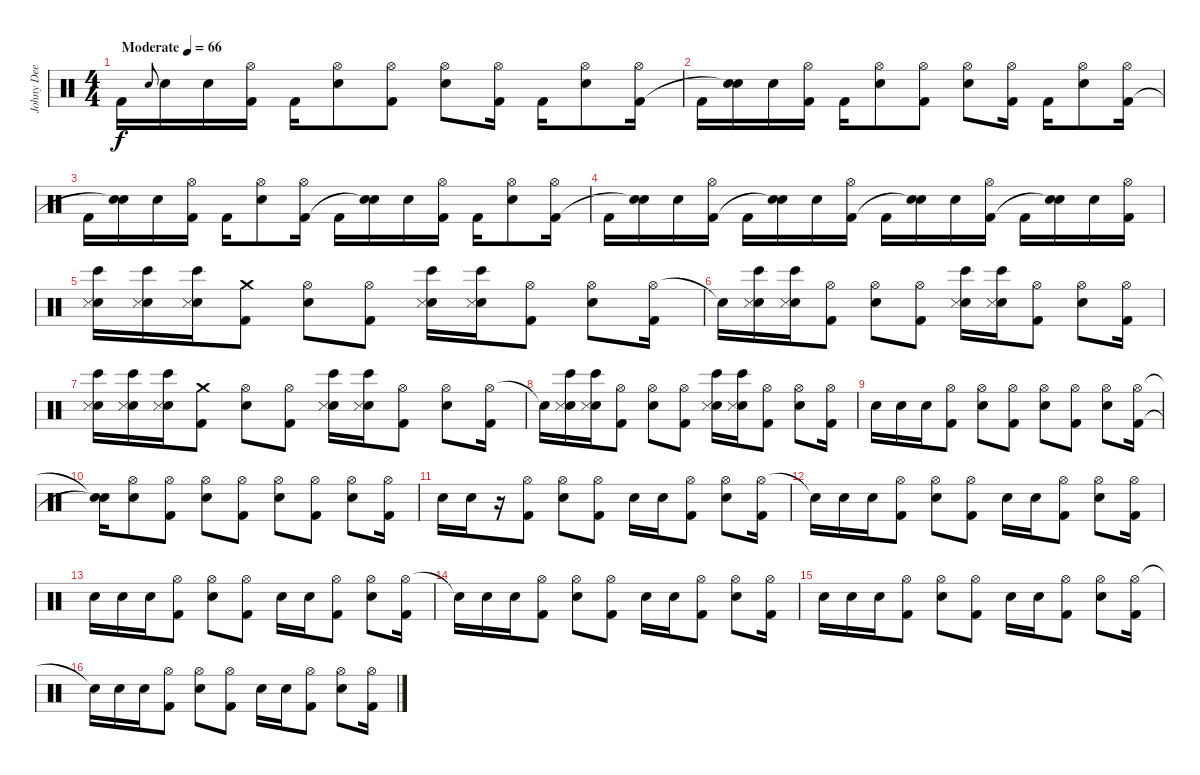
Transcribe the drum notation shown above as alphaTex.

\track ("Johny Dee" "Johny Dee") {instrument percussion}
\staff {score}
\articulation defaults
\ts (4 4)
\tempo (66 "Moderate")
\clef neutral
\ks c "Kick (hit) 2".16{dy f} "Snare (hit) 2".8{gr onbeat} "Snare (hit) 2".16 "Snare (hit) 2".16
("Hi-Hat (open)" "Kick (hit) 2").16 "Kick (hit) 2".16 ("Hi-Hat (open)" "Snare (hit) 2").8 ("Hi-Hat (open)" "Kick (hit) 2").8 ("Hi-Hat (open)" "Snare (hit) 2").8 ("Hi-Hat (open)" "Kick (hit) 2").16 "Kick (hit) 2".16 ("Hi-Hat (open)" "Snare (hit) 2").8 ("Hi-Hat (open)" "Kick (hit) 2").16 |
"Kick (hit) 2".16 ("Snare (hit) 2" "Snare (hit)"{t}).16 "Snare (hit) 2".16 ("Hi-Hat (open)" "Kick (hit) 2").16 "Kick (hit) 2".16 ("Hi-Hat (open)" "Snare (hit) 2").8 ("Hi-Hat (open)" "Kick (hit) 2").8 ("Hi-Hat (open)" "Snare (hit) 2").8 ("Hi-Hat (open)" "Kick (hit) 2").16 "Kick (hit) 2".16 ("Hi-Hat (open)" "Snare (hit) 2").8 ("Hi-Hat (open)" "Kick (hit) 2").16 |
"Kick (hit) 2".16 ("Snare (hit) 2" "Snare (hit)"{t}).16 "Snare (hit) 2".16 ("Hi-Hat (open)" "Kick (hit) 2").16 "Kick (hit) 2".16 ("Hi-Hat (open)" "Snare (hit) 2").8 ("Hi-Hat (open)" "Kick (hit) 2").16 "Kick (hit) 2".16 ("Snare (hit) 2" "Snare (hit)"{t}).16 "Snare (hit) 2".16 ("Hi-Hat (open)" "Kick (hit) 2").16 "Kick (hit) 2".16 ("Hi-Hat (open)" "Snare (hit) 2").8 ("Hi-Hat (open)" "Kick (hit) 2").16 |
"Kick (hit) 2".16 ("Snare (hit) 2" "Snare (hit)"{t}).16 "Snare (hit) 2".16 ("Hi-Hat (open)" "Kick (hit) 2").16 "Kick (hit) 2".16 ("Snare (hit) 2" "Snare (hit)"{t}).16 "Snare (hit) 2".16 ("Hi-Hat (open)" "Kick (hit) 2").16 "Kick (hit) 2".16 ("Snare (hit) 2" "Snare (hit)"{t}).16 "Snare (hit) 2".16 ("Hi-Hat (open)" "Kick (hit) 2").16 "Kick (hit) 2".16 ("Snare (hit) 2" "Snare (hit)"{t}).16 "Snare (hit) 2".16 ("Hi-Hat (open)" "Kick (hit) 2").16 |
("Snare (hit) 2" "Metronome (hit)" "Bongo High (hit)").16 ("Snare (hit) 2" "Metronome (hit)" "Bongo High (hit)").16 ("Snare (hit) 2" "Metronome (hit)" "Bongo High (hit)").16 ("Crash medium (hit)" "Kick (hit) 2").8 ("Hi-Hat (open)" "Snare (hit) 2").8 ("Hi-Hat (open)" "Kick (hit) 2").8 ("Snare (hit) 2" "Metronome (hit)" "Bongo High (hit)").16 ("Snare (hit) 2" "Metronome (hit)" "Bongo High (hit)").16 ("Hi-Hat (open)" "Kick (hit) 2").8 ("Hi-Hat (open)" "Snare (hit) 2").8 ("Hi-Hat (open)" "Kick (hit) 2").16 |
"Snare (hit)"{t}.16 ("Snare (hit) 2" "Metronome (hit)" "Bongo High (hit)").16 ("Snare (hit) 2" "Metronome (hit)" "Bongo High (hit)").16 ("Hi-Hat (open)" "Kick (hit) 2").8 ("Hi-Hat (open)" "Snare (hit) 2").8 ("Hi-Hat (open)" "Kick (hit) 2").8 ("Snare (hit) 2" "Metronome (hit)" "Bongo High (hit)").16 ("Snare (hit) 2" "Metronome (hit)" "Bongo High (hit)").16 ("Hi-Hat (open)" "Kick (hit) 2").8 ("Hi-Hat (open)" "Snare (hit) 2").8 ("Hi-Hat (open)" "Kick (hit) 2").16 |
("Snare (hit) 2" "Metronome (hit)" "Bongo High (hit)").16 ("Snare (hit) 2" "Metronome (hit)" "Bongo High (hit)").16 ("Snare (hit) 2" "Metronome (hit)" "Bongo High (hit)").16 ("Crash medium (hit)" "Kick (hit) 2").8 ("Hi-Hat (open)" "Snare (hit) 2").8 ("Hi-Hat (open)" "Kick (hit) 2").8 ("Snare (hit) 2" "Metronome (hit)" "Bongo High (hit)").16 ("Snare (hit) 2" "Metronome (hit)" "Bongo High (hit)").16 ("Hi-Hat (open)" "Kick (hit) 2").8 ("Hi-Hat (open)" "Snare (hit) 2").8 ("Hi-Hat (open)" "Kick (hit) 2").16 |
"Snare (hit)"{t}.16 ("Snare (hit) 2" "Metronome (hit)" "Bongo High (hit)").16 ("Snare (hit) 2" "Metronome (hit)" "Bongo High (hit)").16 ("Hi-Hat (open)" "Kick (hit) 2").8 ("Hi-Hat (open)" "Snare (hit) 2").8 ("Hi-Hat (open)" "Kick (hit) 2").8 ("Snare (hit) 2" "Metronome (hit)" "Bongo High (hit)").16 ("Snare (hit) 2" "Metronome (hit)" "Bongo High (hit)").16 ("Hi-Hat (open)" "Kick (hit) 2").8 ("Hi-Hat (open)" "Snare (hit) 2").8 ("Hi-Hat (open)" "Kick (hit) 2").16 |
"Snare (hit) 2".16 "Snare (hit) 2".16 "Snare (hit) 2".16 ("Hi-Hat (open)" "Kick (hit) 2").8 ("Hi-Hat (open)" "Snare (hit) 2").8 ("Hi-Hat (open)" "Kick (hit) 2").8 ("Hi-Hat (open)" "Snare (hit) 2").8 ("Hi-Hat (open)" "Kick (hit) 2").8 ("Hi-Hat (open)" "Snare (hit) 2").8 ("Hi-Hat (open)" "Kick (hit) 2").16 |
("Snare (hit)"{t} "Snare (hit)"{t}).16 ("Hi-Hat (open)" "Snare (hit) 2").8 ("Hi-Hat (open)" "Kick (hit) 2").8 ("Hi-Hat (open)" "Snare (hit) 2").8 ("Hi-Hat (open)" "Kick (hit) 2").8 ("Hi-Hat (open)" "Snare (hit) 2").8 ("Hi-Hat (open)" "Kick (hit) 2").8 ("Hi-Hat (open)" "Snare (hit) 2").8 ("Hi-Hat (open)" "Kick (hit) 2").16 |
"Snare (hit) 2".16 "Snare (hit) 2".16 r.16 ("Hi-Hat (open)" "Kick (hit) 2").8 ("Hi-Hat (open)" "Snare (hit) 2").8 ("Hi-Hat (open)" "Kick (hit) 2").8 "Snare (hit) 2".16 "Snare (hit) 2".16 ("Hi-Hat (open)" "Kick (hit) 2").8 ("Hi-Hat (open)" "Snare (hit) 2").8 ("Hi-Hat (open)" "Kick (hit) 2").16 |
"Snare (hit)"{t}.16 "Snare (hit) 2".16 "Snare (hit) 2".16 ("Hi-Hat (open)" "Kick (hit) 2").8 ("Hi-Hat (open)" "Snare (hit) 2").8 ("Hi-Hat (open)" "Kick (hit) 2").8 "Snare (hit) 2".16 "Snare (hit) 2".16 ("Hi-Hat (open)" "Kick (hit) 2").8 ("Hi-Hat (open)" "Snare (hit) 2").8 ("Hi-Hat (open)" "Kick (hit) 2").16 |
"Snare (hit) 2".16 "Snare (hit) 2".16 "Snare (hit) 2".16 ("Hi-Hat (open)" "Kick (hit) 2").8 ("Hi-Hat (open)" "Snare (hit) 2").8 ("Hi-Hat (open)" "Kick (hit) 2").8 "Snare (hit) 2".16 "Snare (hit) 2".16 ("Hi-Hat (open)" "Kick (hit) 2").8 ("Hi-Hat (open)" "Snare (hit) 2").8 ("Hi-Hat (open)" "Kick (hit) 2").16 |
"Snare (hit)"{t}.16 "Snare (hit) 2".16 "Snare (hit) 2".16 ("Hi-Hat (open)" "Kick (hit) 2").8 ("Hi-Hat (open)" "Snare (hit) 2").8 ("Hi-Hat (open)" "Kick (hit) 2").8 "Snare (hit) 2".16 "Snare (hit) 2".16 ("Hi-Hat (open)" "Kick (hit) 2").8 ("Hi-Hat (open)" "Snare (hit) 2").8 ("Hi-Hat (open)" "Kick (hit) 2").16 |
"Snare (hit) 2".16 "Snare (hit) 2".16 "Snare (hit) 2".16 ("Hi-Hat (open)" "Kick (hit) 2").8 ("Hi-Hat (open)" "Snare (hit) 2").8 ("Hi-Hat (open)" "Kick (hit) 2").8 "Snare (hit) 2".16 "Snare (hit) 2".16 ("Hi-Hat (open)" "Kick (hit) 2").8 ("Hi-Hat (open)" "Snare (hit) 2").8 ("Hi-Hat (open)" "Kick (hit) 2").16 |
"Snare (hit)"{t}.16 "Snare (hit) 2".16 "Snare (hit) 2".16 ("Hi-Hat (open)" "Kick (hit) 2").8 ("Hi-Hat (open)" "Snare (hit) 2").8 ("Hi-Hat (open)" "Kick (hit) 2").8 "Snare (hit) 2".16 "Snare (hit) 2".16 ("Hi-Hat (open)" "Kick (hit) 2").8 ("Hi-Hat (open)" "Snare (hit) 2").8 ("Hi-Hat (open)" "Kick (hit) 2").16
